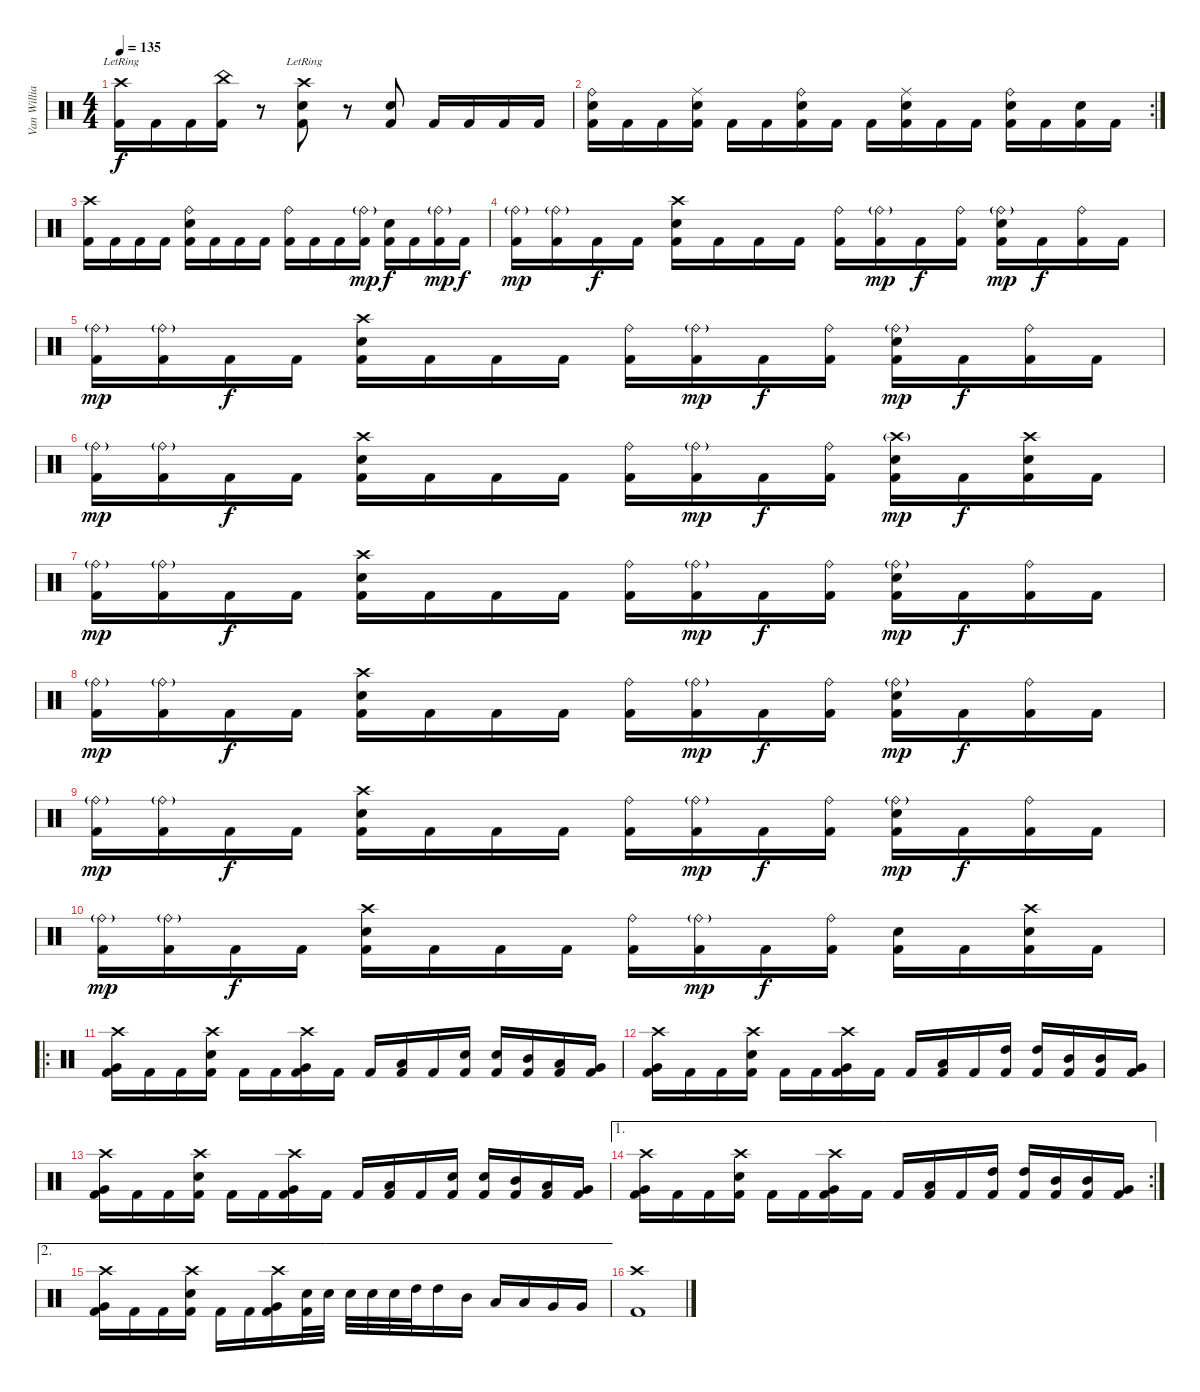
\track ("Van Williams" "Van Willia") {instrument percussion}
\staff {score}
\articulation defaults
\ts (4 4)
\tempo 135
\clef neutral
\ks c
("Crash high (hit)"{lr} "Kick (hit) 2").16{dy f} "Kick (hit) 2".16 "Kick (hit) 2".16 ("China (hit)" "Kick (hit) 2").16 r.8 ("Crash high (hit)"{lr} "Kick (hit) 2" "Electric Snare (hit)").8 r.8 ("Kick (hit) 2" "Electric Snare (hit)").8 "Kick (hit) 2".16 "Kick (hit) 2".16 "Kick (hit) 2".16 "Kick (hit) 2".16 |
\rc 2
("Ride (bell)" "Kick (hit) 2" "Electric Snare (hit)").16 "Kick (hit) 2".16 "Kick (hit) 2".16 ("Ride (middle)" "Kick (hit) 2" "Electric Snare (hit)").16 "Kick (hit) 2".16 "Kick (hit) 2".16 ("Ride (bell)" "Kick (hit) 2" "Electric Snare (hit)").16 "Kick (hit) 2".16 "Kick (hit) 2".16 ("Ride (middle)" "Kick (hit) 2" "Electric Snare (hit)").16 "Kick (hit) 2".16 "Kick (hit) 2".16 ("Ride (bell)" "Kick (hit) 2" "Electric Snare (hit)").16 "Kick (hit) 2".16 ("Kick (hit) 2" "Electric Snare (hit)").16 "Kick (hit) 2".16 |
("Crash high (hit)" "Kick (hit) 2").16 "Kick (hit) 2".16 "Kick (hit) 2".16 "Kick (hit) 2".16 ("Ride (bell)" "Kick (hit) 2" "Electric Snare (hit)").16 "Kick (hit) 2".16 "Kick (hit) 2".16 "Kick (hit) 2".16 ("Ride (bell)" "Kick (hit) 2").16 "Kick (hit) 2".16 "Kick (hit) 2".16 ("Ride (bell)"{g} "Kick (hit) 2").16{dy mp} ("Kick (hit) 2" "Electric Snare (hit)").16{dy f} "Kick (hit) 2".16 ("Ride (bell)"{g} "Kick (hit) 2").16{dy mp} "Kick (hit) 2".16{dy f} |
("Ride (bell)"{g} "Kick (hit) 2").16{dy mp} ("Ride (bell)"{g} "Kick (hit) 2").16 "Kick (hit) 2".16{dy f} "Kick (hit) 2".16 ("Crash high (hit)" "Kick (hit) 2" "Electric Snare (hit)").16 "Kick (hit) 2".16 "Kick (hit) 2".16 "Kick (hit) 2".16 ("Ride (bell)" "Kick (hit) 2").16 ("Ride (bell)"{g} "Kick (hit) 2").16{dy mp} "Kick (hit) 2".16{dy f} ("Ride (bell)" "Kick (hit) 2").16 ("Ride (bell)"{g} "Kick (hit) 2" "Electric Snare (hit)").16{dy mp} "Kick (hit) 2".16{dy f} ("Ride (bell)" "Kick (hit) 2").16 "Kick (hit) 2".16 |
("Ride (bell)"{g} "Kick (hit) 2").16{dy mp} ("Ride (bell)"{g} "Kick (hit) 2").16 "Kick (hit) 2".16{dy f} "Kick (hit) 2".16 ("Crash high (hit)" "Kick (hit) 2" "Electric Snare (hit)").16 "Kick (hit) 2".16 "Kick (hit) 2".16 "Kick (hit) 2".16 ("Ride (bell)" "Kick (hit) 2").16 ("Ride (bell)"{g} "Kick (hit) 2").16{dy mp} "Kick (hit) 2".16{dy f} ("Ride (bell)" "Kick (hit) 2").16 ("Ride (bell)"{g} "Kick (hit) 2" "Electric Snare (hit)").16{dy mp} "Kick (hit) 2".16{dy f} ("Ride (bell)" "Kick (hit) 2").16 "Kick (hit) 2".16 |
("Ride (bell)"{g} "Kick (hit) 2").16{dy mp} ("Ride (bell)"{g} "Kick (hit) 2").16 "Kick (hit) 2".16{dy f} "Kick (hit) 2".16 ("Crash high (hit)" "Kick (hit) 2" "Electric Snare (hit)").16 "Kick (hit) 2".16 "Kick (hit) 2".16 "Kick (hit) 2".16 ("Ride (bell)" "Kick (hit) 2").16 ("Ride (bell)"{g} "Kick (hit) 2").16{dy mp} "Kick (hit) 2".16{dy f} ("Ride (bell)" "Kick (hit) 2").16 ("Crash high (hit)"{g} "Kick (hit) 2" "Electric Snare (hit)").16{dy mp} "Kick (hit) 2".16{dy f} ("Crash high (hit)" "Kick (hit) 2" "Electric Snare (hit)").16 "Kick (hit) 2".16 |
("Ride (bell)"{g} "Kick (hit) 2").16{dy mp} ("Ride (bell)"{g} "Kick (hit) 2").16 "Kick (hit) 2".16{dy f} "Kick (hit) 2".16 ("Crash high (hit)" "Kick (hit) 2" "Electric Snare (hit)").16 "Kick (hit) 2".16 "Kick (hit) 2".16 "Kick (hit) 2".16 ("Ride (bell)" "Kick (hit) 2").16 ("Ride (bell)"{g} "Kick (hit) 2").16{dy mp} "Kick (hit) 2".16{dy f} ("Ride (bell)" "Kick (hit) 2").16 ("Ride (bell)"{g} "Kick (hit) 2" "Electric Snare (hit)").16{dy mp} "Kick (hit) 2".16{dy f} ("Ride (bell)" "Kick (hit) 2").16 "Kick (hit) 2".16 |
("Ride (bell)"{g} "Kick (hit) 2").16{dy mp} ("Ride (bell)"{g} "Kick (hit) 2").16 "Kick (hit) 2".16{dy f} "Kick (hit) 2".16 ("Crash high (hit)" "Kick (hit) 2" "Electric Snare (hit)").16 "Kick (hit) 2".16 "Kick (hit) 2".16 "Kick (hit) 2".16 ("Ride (bell)" "Kick (hit) 2").16 ("Ride (bell)"{g} "Kick (hit) 2").16{dy mp} "Kick (hit) 2".16{dy f} ("Ride (bell)" "Kick (hit) 2").16 ("Ride (bell)"{g} "Kick (hit) 2" "Electric Snare (hit)").16{dy mp} "Kick (hit) 2".16{dy f} ("Ride (bell)" "Kick (hit) 2").16 "Kick (hit) 2".16 |
("Ride (bell)"{g} "Kick (hit) 2").16{dy mp} ("Ride (bell)"{g} "Kick (hit) 2").16 "Kick (hit) 2".16{dy f} "Kick (hit) 2".16 ("Crash high (hit)" "Kick (hit) 2" "Electric Snare (hit)").16 "Kick (hit) 2".16 "Kick (hit) 2".16 "Kick (hit) 2".16 ("Ride (bell)" "Kick (hit) 2").16 ("Ride (bell)"{g} "Kick (hit) 2").16{dy mp} "Kick (hit) 2".16{dy f} ("Ride (bell)" "Kick (hit) 2").16 ("Ride (bell)"{g} "Kick (hit) 2" "Electric Snare (hit)").16{dy mp} "Kick (hit) 2".16{dy f} ("Ride (bell)" "Kick (hit) 2").16 "Kick (hit) 2".16 |
("Ride (bell)"{g} "Kick (hit) 2").16{dy mp} ("Ride (bell)"{g} "Kick (hit) 2").16 "Kick (hit) 2".16{dy f} "Kick (hit) 2".16 ("Crash high (hit)" "Kick (hit) 2" "Electric Snare (hit)").16 "Kick (hit) 2".16 "Kick (hit) 2".16 "Kick (hit) 2".16 ("Ride (bell)" "Kick (hit) 2").16 ("Ride (bell)"{g} "Kick (hit) 2").16{dy mp} "Kick (hit) 2".16{dy f} ("Ride (bell)" "Kick (hit) 2").16 ("Kick (hit) 2" "Electric Snare (hit)").16 "Kick (hit) 2".16 ("Crash high (hit)" "Kick (hit) 2" "Electric Snare (hit)").16 "Kick (hit) 2".16 |
\ro
("Crash high (hit)" "Kick (hit) 2" "Very Low Tom (hit)").16 "Kick (hit) 2".16 "Kick (hit) 2".16 ("Crash high (hit)" "Kick (hit) 2" "Electric Snare (hit)").16 "Kick (hit) 2".16 "Kick (hit) 2".16 ("Crash high (hit)" "Kick (hit) 2" "Very Low Tom (hit)").16 "Kick (hit) 2".16 "Kick (hit) 2".16 ("Kick (hit) 2" "Low Tom (hit)").16 "Kick (hit) 2".16 ("Kick (hit) 2" "Electric Snare (hit)").16 ("Kick (hit) 2" "Electric Snare (hit)").16 ("Kick (hit) 2" "Mid Tom (hit)").16 ("Kick (hit) 2" "Low Tom (hit)").16 ("Kick (hit) 2" "Very Low Tom (hit)").16 |
("Crash high (hit)" "Kick (hit) 2" "Very Low Tom (hit)").16 "Kick (hit) 2".16 "Kick (hit) 2".16 ("Crash high (hit)" "Kick (hit) 2" "Electric Snare (hit)").16 "Kick (hit) 2".16 "Kick (hit) 2".16 ("Crash high (hit)" "Kick (hit) 2" "Very Low Tom (hit)").16 "Kick (hit) 2".16 "Kick (hit) 2".16 ("Kick (hit) 2" "Low Tom (hit)").16 "Kick (hit) 2".16 ("Kick (hit) 2" "High Tom (hit)").16 ("Kick (hit) 2" "High Tom (hit)").16 ("Kick (hit) 2" "Mid Tom (hit)").16 ("Kick (hit) 2" "Mid Tom (hit)").16 ("Kick (hit) 2" "Very Low Tom (hit)").16 |
("Crash high (hit)" "Kick (hit) 2" "Very Low Tom (hit)").16 "Kick (hit) 2".16 "Kick (hit) 2".16 ("Crash high (hit)" "Kick (hit) 2" "Electric Snare (hit)").16 "Kick (hit) 2".16 "Kick (hit) 2".16 ("Crash high (hit)" "Kick (hit) 2" "Very Low Tom (hit)").16 "Kick (hit) 2".16 "Kick (hit) 2".16 ("Kick (hit) 2" "Low Tom (hit)").16 "Kick (hit) 2".16 ("Kick (hit) 2" "Electric Snare (hit)").16 ("Kick (hit) 2" "Electric Snare (hit)").16 ("Kick (hit) 2" "Mid Tom (hit)").16 ("Kick (hit) 2" "Low Tom (hit)").16 ("Kick (hit) 2" "Very Low Tom (hit)").16 |
\ae 1
\rc 2
("Crash high (hit)" "Kick (hit) 2" "Very Low Tom (hit)").16 "Kick (hit) 2".16 "Kick (hit) 2".16 ("Crash high (hit)" "Kick (hit) 2" "Electric Snare (hit)").16 "Kick (hit) 2".16 "Kick (hit) 2".16 ("Crash high (hit)" "Kick (hit) 2" "Very Low Tom (hit)").16 "Kick (hit) 2".16 "Kick (hit) 2".16 ("Kick (hit) 2" "Low Tom (hit)").16 "Kick (hit) 2".16 ("Kick (hit) 2" "High Tom (hit)").16 ("Kick (hit) 2" "High Tom (hit)").16 ("Kick (hit) 2" "Mid Tom (hit)").16 ("Kick (hit) 2" "Mid Tom (hit)").16 ("Kick (hit) 2" "Very Low Tom (hit)").16 |
\ae 2
("Crash high (hit)" "Kick (hit) 2" "Very Low Tom (hit)").16 "Kick (hit) 2".16 "Kick (hit) 2".16 ("Crash high (hit)" "Kick (hit) 2" "Electric Snare (hit)").16 "Kick (hit) 2".16 "Kick (hit) 2".16 ("Crash high (hit)" "Kick (hit) 2" "Very Low Tom (hit)").16 ("Kick (hit) 2" "Electric Snare (hit)").32 "Electric Snare (hit)".32 "Electric Snare (hit)".32 "Electric Snare (hit)".32 "Electric Snare (hit)".32 "High Tom (hit)".32 "High Tom (hit)".16 "Mid Tom (hit)".16 "Low Tom (hit)".16 "Low Tom (hit)".16 "Very Low Tom (hit)".16 "Very Low Tom (hit)".16 |
("Crash high (hit)" "Kick (hit) 2").1
